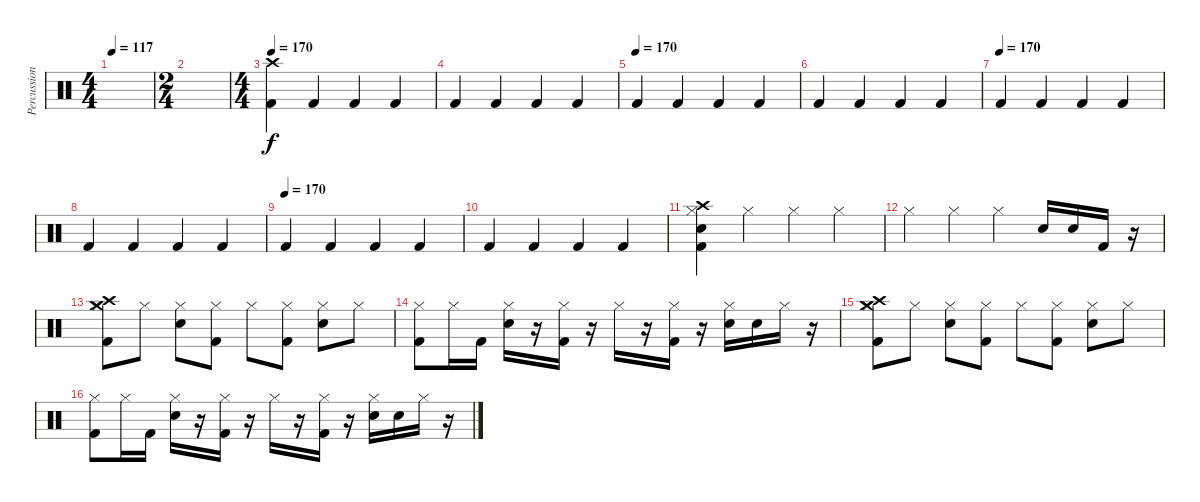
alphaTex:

\track ("Percussions" "Percussion") {instrument percussion}
\staff {score}
\articulation defaults
\ts (4 4)
\tempo 117
\clef neutral
\ks c
|
\ts (2 4)
|
\ts (4 4)
\tempo 170
("Crash high (hit)" "Kick (hit) 2").4 "Kick (hit) 2".4 "Kick (hit) 2".4 "Kick (hit) 2".4 |
"Kick (hit) 2".4 "Kick (hit) 2".4 "Kick (hit) 2".4 "Kick (hit) 2".4 |
\tempo (170)
"Kick (hit) 2".4 "Kick (hit) 2".4 "Kick (hit) 2".4 "Kick (hit) 2".4 |
"Kick (hit) 2".4 "Kick (hit) 2".4 "Kick (hit) 2".4 "Kick (hit) 2".4 |
\tempo (170)
"Kick (hit) 2".4 "Kick (hit) 2".4 "Kick (hit) 2".4 "Kick (hit) 2".4 |
"Kick (hit) 2".4 "Kick (hit) 2".4 "Kick (hit) 2".4 "Kick (hit) 2".4 |
\tempo (170)
"Kick (hit) 2".4 "Kick (hit) 2".4 "Kick (hit) 2".4 "Kick (hit) 2".4 |
"Kick (hit) 2".4 "Kick (hit) 2".4 "Kick (hit) 2".4 "Kick (hit) 2".4 |
("Crash high (hit)" "Electric Snare (hit)" "Hi-Hat (closed)" "Kick (hit) 2").4 "Hi-Hat (closed)".4 "Hi-Hat (closed)".4 "Hi-Hat (closed)".4 |
"Hi-Hat (closed)".4 "Hi-Hat (closed)".4 "Hi-Hat (closed)".4 "Electric Snare (hit)".16 "Electric Snare (hit)".16 "Kick (hit) 2".16 r.16 |
("Crash medium (hit)" "Crash high (hit)" "Hi-Hat (closed)" "Kick (hit) 2").8 "Hi-Hat (closed)".8 ("Hi-Hat (closed)" "Electric Snare (hit)").8 ("Hi-Hat (closed)" "Kick (hit) 2").8 "Hi-Hat (closed)".8 ("Hi-Hat (closed)" "Kick (hit) 2").8 ("Hi-Hat (closed)" "Electric Snare (hit)").8 "Hi-Hat (closed)".8 |
("Hi-Hat (closed)" "Kick (hit) 2").8 "Hi-Hat (closed)".16 "Kick (hit) 2".16 ("Hi-Hat (closed)" "Electric Snare (hit)").16 r.16 ("Hi-Hat (closed)" "Kick (hit) 2").16 r.16 "Hi-Hat (closed)".16 r.16 ("Hi-Hat (closed)" "Kick (hit) 2").16 r.16 ("Hi-Hat (closed)" "Electric Snare (hit)").16 "Electric Snare (hit)".16 "Hi-Hat (closed)".16 r.16 |
("Crash medium (hit)" "Crash high (hit)" "Hi-Hat (closed)" "Kick (hit) 2").8 "Hi-Hat (closed)".8 ("Hi-Hat (closed)" "Electric Snare (hit)").8 ("Hi-Hat (closed)" "Kick (hit) 2").8 "Hi-Hat (closed)".8 ("Hi-Hat (closed)" "Kick (hit) 2").8 ("Hi-Hat (closed)" "Electric Snare (hit)").8 "Hi-Hat (closed)".8 |
("Hi-Hat (closed)" "Kick (hit) 2").8 "Hi-Hat (closed)".16 "Kick (hit) 2".16 ("Hi-Hat (closed)" "Electric Snare (hit)").16 r.16 ("Hi-Hat (closed)" "Kick (hit) 2").16 r.16 "Hi-Hat (closed)".16 r.16 ("Hi-Hat (closed)" "Kick (hit) 2").16 r.16 ("Hi-Hat (closed)" "Electric Snare (hit)").16 "Electric Snare (hit)".16 "Hi-Hat (closed)".16 r.16
